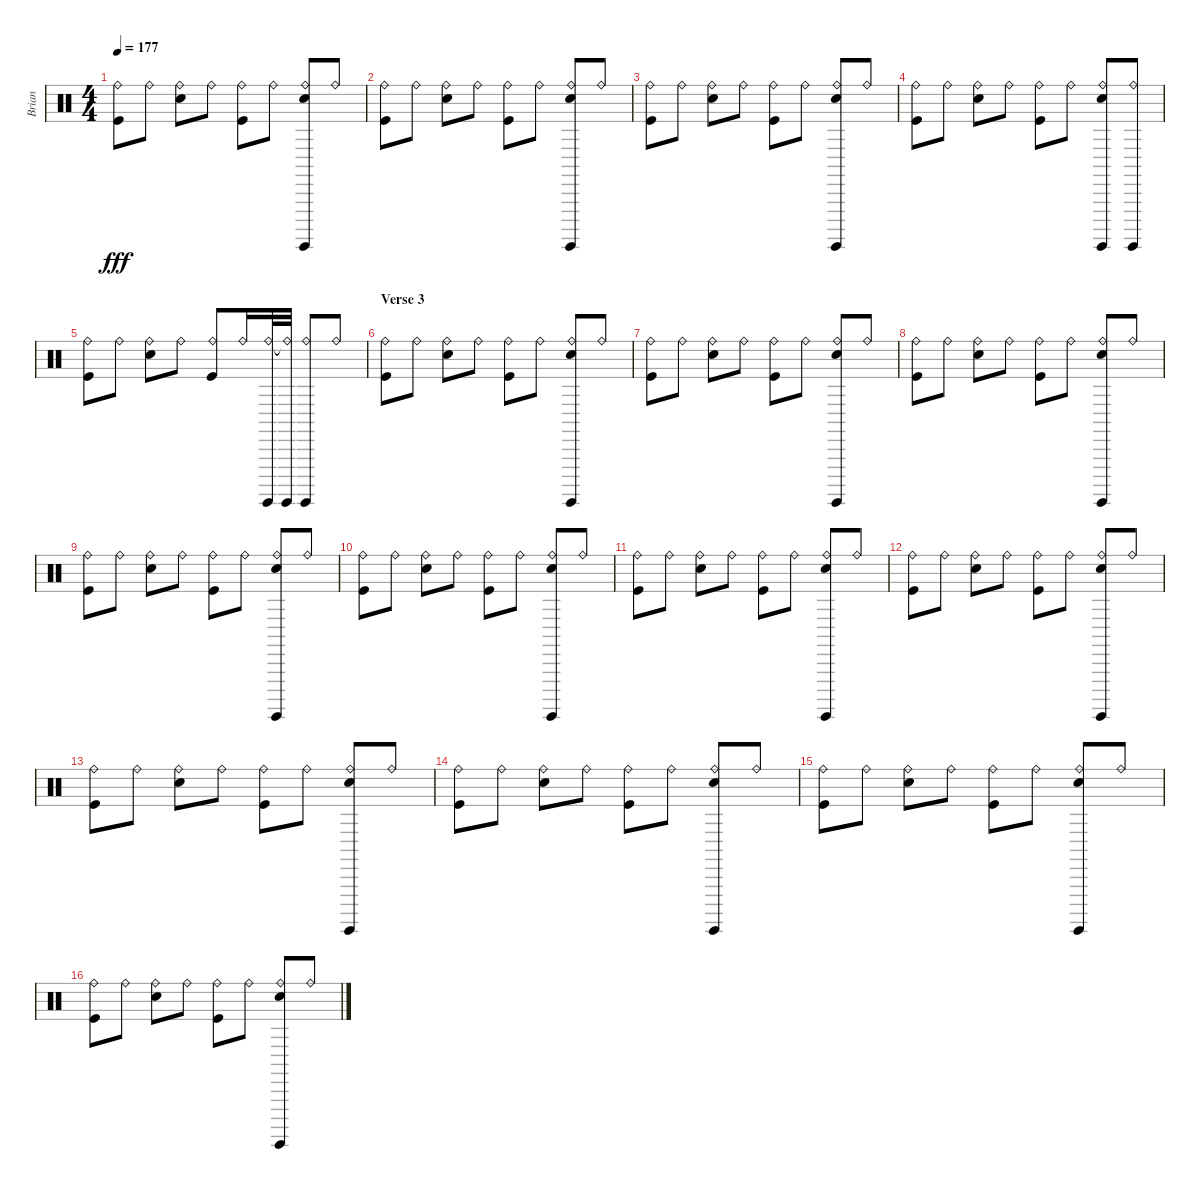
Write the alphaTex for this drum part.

\track ("Brian" "Brian") {instrument percussion}
\staff {score}
\articulation defaults
\ts (4 4)
\tempo 177
\clef neutral
\ks c
("Ride (bell)" "Kick (hit)").8{dy fff} "Ride (bell)".8 ("Ride (bell)" "Electric Snare (hit)").8 "Ride (bell)".8 ("Ride (bell)" "Kick (hit)").8 "Ride (bell)".8 ("Surdo (hit)" "Ride (bell)" "Electric Snare (hit)").8 "Ride (bell)".8 |
("Ride (bell)" "Kick (hit)").8 "Ride (bell)".8 ("Ride (bell)" "Electric Snare (hit)").8 "Ride (bell)".8 ("Ride (bell)" "Kick (hit)").8 "Ride (bell)".8 ("Surdo (hit)" "Ride (bell)" "Electric Snare (hit)").8 "Ride (bell)".8 |
("Ride (bell)" "Kick (hit)").8 "Ride (bell)".8 ("Ride (bell)" "Electric Snare (hit)").8 "Ride (bell)".8 ("Ride (bell)" "Kick (hit)").8 "Ride (bell)".8 ("Surdo (hit)" "Ride (bell)" "Electric Snare (hit)").8 "Ride (bell)".8 |
("Ride (bell)" "Kick (hit)").8 "Ride (bell)".8 ("Ride (bell)" "Electric Snare (hit)").8 "Ride (bell)".8 ("Ride (bell)" "Kick (hit)").8 "Ride (bell)".8 ("Surdo (hit)" "Ride (bell)" "Electric Snare (hit)").8 ("Surdo (hit)" "Ride (bell)").8 |
("Ride (bell)" "Kick (hit)").8 "Ride (bell)".8 ("Ride (bell)" "Electric Snare (hit)").8 "Ride (bell)".8 ("Ride (bell)" "Kick (hit)").8 "Ride (bell)".16 ("Surdo (hit)" "Ride (bell)").32 ("Surdo (hit)" "Ride (bell)"{t}).32 ("Surdo (hit)" "Ride (bell)").8 "Ride (bell)".8 |
\section ("" "Verse 3")
("Ride (bell)" "Kick (hit)").8 "Ride (bell)".8 ("Ride (bell)" "Electric Snare (hit)").8 "Ride (bell)".8 ("Ride (bell)" "Kick (hit)").8 "Ride (bell)".8 ("Surdo (hit)" "Ride (bell)" "Electric Snare (hit)").8 "Ride (bell)".8 |
("Ride (bell)" "Kick (hit)").8 "Ride (bell)".8 ("Ride (bell)" "Electric Snare (hit)").8 "Ride (bell)".8 ("Ride (bell)" "Kick (hit)").8 "Ride (bell)".8 ("Surdo (hit)" "Ride (bell)" "Electric Snare (hit)").8 "Ride (bell)".8 |
("Ride (bell)" "Kick (hit)").8 "Ride (bell)".8 ("Ride (bell)" "Electric Snare (hit)").8 "Ride (bell)".8 ("Ride (bell)" "Kick (hit)").8 "Ride (bell)".8 ("Surdo (hit)" "Ride (bell)" "Electric Snare (hit)").8 "Ride (bell)".8 |
("Ride (bell)" "Kick (hit)").8 "Ride (bell)".8 ("Ride (bell)" "Electric Snare (hit)").8 "Ride (bell)".8 ("Ride (bell)" "Kick (hit)").8 "Ride (bell)".8 ("Surdo (hit)" "Ride (bell)" "Electric Snare (hit)").8 "Ride (bell)".8 |
("Ride (bell)" "Kick (hit)").8 "Ride (bell)".8 ("Ride (bell)" "Electric Snare (hit)").8 "Ride (bell)".8 ("Ride (bell)" "Kick (hit)").8 "Ride (bell)".8 ("Surdo (hit)" "Ride (bell)" "Electric Snare (hit)").8 "Ride (bell)".8 |
("Ride (bell)" "Kick (hit)").8 "Ride (bell)".8 ("Ride (bell)" "Electric Snare (hit)").8 "Ride (bell)".8 ("Ride (bell)" "Kick (hit)").8 "Ride (bell)".8 ("Surdo (hit)" "Ride (bell)" "Electric Snare (hit)").8 "Ride (bell)".8 |
("Ride (bell)" "Kick (hit)").8 "Ride (bell)".8 ("Ride (bell)" "Electric Snare (hit)").8 "Ride (bell)".8 ("Ride (bell)" "Kick (hit)").8 "Ride (bell)".8 ("Surdo (hit)" "Ride (bell)" "Electric Snare (hit)").8 "Ride (bell)".8 |
("Ride (bell)" "Kick (hit)").8 "Ride (bell)".8 ("Ride (bell)" "Electric Snare (hit)").8 "Ride (bell)".8 ("Ride (bell)" "Kick (hit)").8 "Ride (bell)".8 ("Surdo (hit)" "Ride (bell)" "Electric Snare (hit)").8 "Ride (bell)".8 |
("Ride (bell)" "Kick (hit)").8 "Ride (bell)".8 ("Ride (bell)" "Electric Snare (hit)").8 "Ride (bell)".8 ("Ride (bell)" "Kick (hit)").8 "Ride (bell)".8 ("Surdo (hit)" "Ride (bell)" "Electric Snare (hit)").8 "Ride (bell)".8 |
("Ride (bell)" "Kick (hit)").8 "Ride (bell)".8 ("Ride (bell)" "Electric Snare (hit)").8 "Ride (bell)".8 ("Ride (bell)" "Kick (hit)").8 "Ride (bell)".8 ("Surdo (hit)" "Ride (bell)" "Electric Snare (hit)").8 "Ride (bell)".8 |
("Ride (bell)" "Kick (hit)").8 "Ride (bell)".8 ("Ride (bell)" "Electric Snare (hit)").8 "Ride (bell)".8 ("Ride (bell)" "Kick (hit)").8 "Ride (bell)".8 ("Surdo (hit)" "Ride (bell)" "Electric Snare (hit)").8 "Ride (bell)".8
